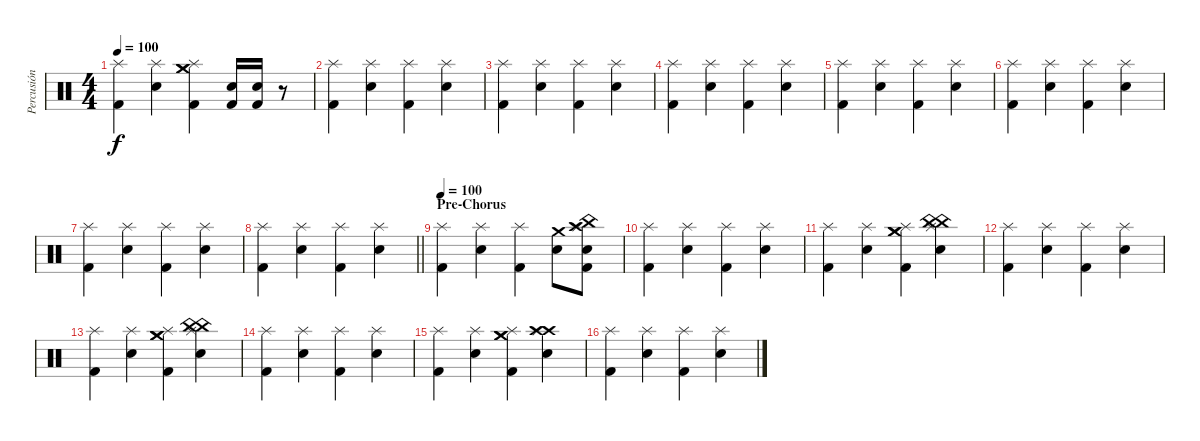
\track ("Percusión" "Percusión") {instrument percussion}
\staff {score}
\articulation defaults
\ts (4 4)
\tempo 100
\clef neutral
\ks c
("Splash (hit)" "Kick (hit) 2").4{dy f} ("Splash (hit)" "Snare (hit) 2").4 ("Crash medium (hit)" "Crash medium (hit)" "Splash (hit)" "Kick (hit) 2").4 ("Electric Snare (hit)" "Kick (hit) 2").16 ("Electric Snare (hit)" "Kick (hit) 2").16 r.8 |
("Splash (hit)" "Kick (hit) 2").4 ("Splash (hit)" "Snare (hit) 2").4 ("Splash (hit)" "Kick (hit) 2").4 ("Splash (hit)" "Snare (hit) 2").4 |
("Splash (hit)" "Kick (hit) 2").4 ("Splash (hit)" "Snare (hit) 2").4 ("Splash (hit)" "Kick (hit) 2").4 ("Splash (hit)" "Snare (hit) 2").4 |
("Splash (hit)" "Kick (hit) 2").4 ("Splash (hit)" "Snare (hit) 2").4 ("Splash (hit)" "Kick (hit) 2").4 ("Splash (hit)" "Snare (hit) 2").4 |
("Splash (hit)" "Kick (hit) 2").4 ("Splash (hit)" "Snare (hit) 2").4 ("Splash (hit)" "Kick (hit) 2").4 ("Splash (hit)" "Snare (hit) 2").4 |
("Splash (hit)" "Kick (hit) 2").4 ("Splash (hit)" "Snare (hit) 2").4 ("Splash (hit)" "Kick (hit) 2").4 ("Splash (hit)" "Snare (hit) 2").4 |
("Splash (hit)" "Kick (hit) 2").4 ("Splash (hit)" "Snare (hit) 2").4 ("Splash (hit)" "Kick (hit) 2").4 ("Splash (hit)" "Snare (hit) 2").4 |
\barLineRight lightlight
("Splash (hit)" "Kick (hit) 2").4 ("Splash (hit)" "Snare (hit) 2").4 ("Splash (hit)" "Kick (hit) 2").4 ("Splash (hit)" "Snare (hit) 2").4 |
\section ("" "Pre-Chorus ")
\tempo 100
("Splash (hit)" "Kick (hit) 2").4 ("Splash (hit)" "Snare (hit) 2").4 ("Splash (hit)" "Kick (hit) 2").4 ("Crash medium (hit)" "Snare (hit) 2").8 ("Crash high (hit)" "Splash (hit)" "China (hit)" "Kick (hit) 2" "Snare (hit) 2").8 |
("Splash (hit)" "Kick (hit) 2").4 ("Splash (hit)" "Snare (hit) 2").4 ("Splash (hit)" "Kick (hit) 2").4 ("Splash (hit)" "Snare (hit) 2").4 |
("Splash (hit)" "Kick (hit) 2").4 ("Splash (hit)" "Snare (hit) 2").4 ("Crash medium (hit)" "Crash medium (hit)" "Splash (hit)" "Kick (hit) 2").4 ("China (hit)" "China (hit)" "Splash (hit)" "Snare (hit) 2").4 |
("Splash (hit)" "Kick (hit) 2").4 ("Splash (hit)" "Snare (hit) 2").4 ("Splash (hit)" "Kick (hit) 2").4 ("Splash (hit)" "Snare (hit) 2").4 |
("Splash (hit)" "Kick (hit) 2").4 ("Splash (hit)" "Snare (hit) 2").4 ("Crash medium (hit)" "Crash medium (hit)" "Splash (hit)" "Kick (hit) 2").4 ("China (hit)" "China (hit)" "Splash (hit)" "Snare (hit) 2").4 |
("Splash (hit)" "Kick (hit) 2").4 ("Splash (hit)" "Snare (hit) 2").4 ("Splash (hit)" "Kick (hit) 2").4 ("Splash (hit)" "Snare (hit) 2").4 |
("Splash (hit)" "Kick (hit) 2").4 ("Splash (hit)" "Snare (hit) 2").4 ("Crash medium (hit)" "Crash medium (hit)" "Splash (hit)" "Kick (hit) 2").4 ("Crash high (hit)" "Crash high (hit)" "Splash (hit)" "Snare (hit) 2").4 |
("Splash (hit)" "Kick (hit) 2").4 ("Splash (hit)" "Snare (hit) 2").4 ("Splash (hit)" "Kick (hit) 2").4 ("Splash (hit)" "Snare (hit) 2").4
